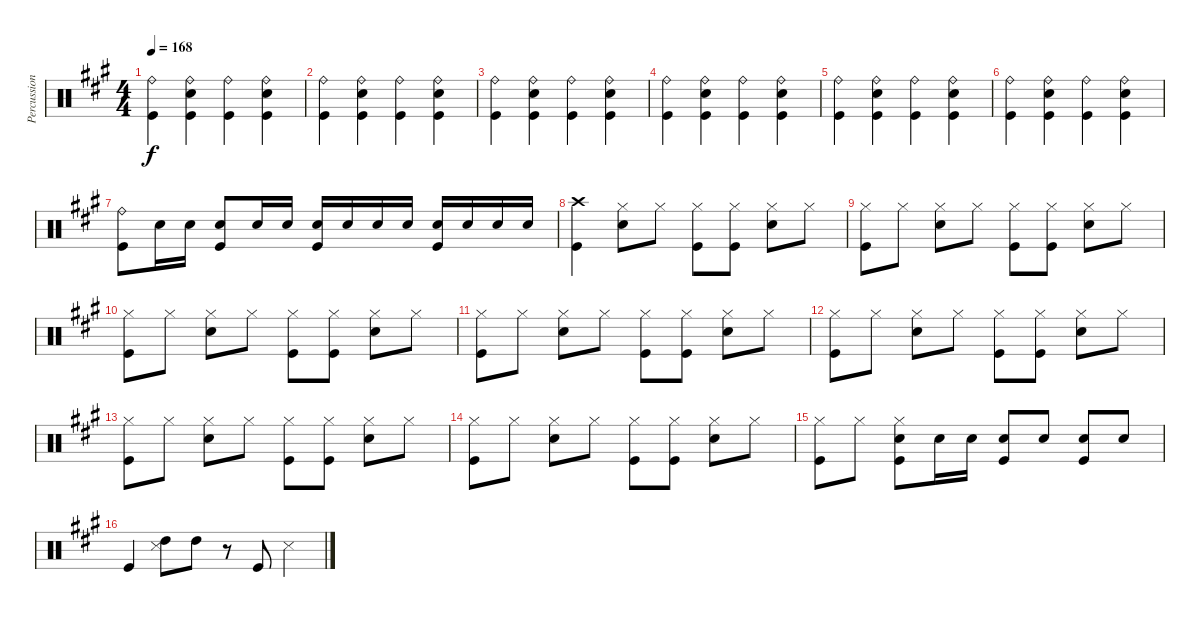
\track ("Percussion" "Percussion") {instrument percussion}
\staff {score}
\articulation defaults
\ts (4 4)
\tempo 168
\clef neutral
\ks a
("Ride (bell)" "Kick (hit)").4{dy f} ("Ride (bell)" "Snare (hit) 2" "Kick (hit)").4 ("Ride (bell)" "Kick (hit)").4 ("Ride (bell)" "Snare (hit) 2" "Kick (hit)").4 |
("Ride (bell)" "Kick (hit)").4 ("Ride (bell)" "Snare (hit) 2" "Kick (hit)").4 ("Ride (bell)" "Kick (hit)").4 ("Ride (bell)" "Snare (hit) 2" "Kick (hit)").4 |
("Ride (bell)" "Kick (hit)").4 ("Ride (bell)" "Snare (hit) 2" "Kick (hit)").4 ("Ride (bell)" "Kick (hit)").4 ("Ride (bell)" "Snare (hit) 2" "Kick (hit)").4 |
("Ride (bell)" "Kick (hit)").4 ("Ride (bell)" "Snare (hit) 2" "Kick (hit)").4 ("Ride (bell)" "Kick (hit)").4 ("Ride (bell)" "Snare (hit) 2" "Kick (hit)").4 |
("Ride (bell)" "Kick (hit)").4 ("Ride (bell)" "Snare (hit) 2" "Kick (hit)").4 ("Ride (bell)" "Kick (hit)").4 ("Ride (bell)" "Snare (hit) 2" "Kick (hit)").4 |
("Ride (bell)" "Kick (hit)").4 ("Ride (bell)" "Snare (hit) 2" "Kick (hit)").4 ("Ride (bell)" "Kick (hit)").4 ("Ride (bell)" "Snare (hit) 2" "Kick (hit)").4 |
("Ride (bell)" "Kick (hit)").8 "Snare (hit) 2".16 "Snare (hit) 2".16 ("Snare (hit) 2" "Kick (hit)").8 "Snare (hit) 2".16 "Snare (hit) 2".16 ("Snare (hit) 2" "Kick (hit)").16 "Snare (hit) 2".16 "Snare (hit) 2".16 "Snare (hit) 2".16 ("Snare (hit) 2" "Kick (hit)").16 "Snare (hit) 2".16 "Snare (hit) 2".16 "Snare (hit) 2".16 |
("Crash high (hit)" "Kick (hit)").4 ("Hi-Hat (closed)" "Snare (hit) 2").8 "Hi-Hat (closed)".8 ("Hi-Hat (closed)" "Kick (hit)").8 ("Hi-Hat (closed)" "Kick (hit)").8 ("Hi-Hat (closed)" "Snare (hit) 2").8 "Hi-Hat (closed)".8 |
("Hi-Hat (closed)" "Kick (hit)").8 "Hi-Hat (closed)".8 ("Hi-Hat (closed)" "Snare (hit) 2").8 "Hi-Hat (closed)".8 ("Hi-Hat (closed)" "Kick (hit)").8 ("Hi-Hat (closed)" "Kick (hit)").8 ("Hi-Hat (closed)" "Snare (hit) 2").8 "Hi-Hat (closed)".8 |
("Hi-Hat (closed)" "Kick (hit)").8 "Hi-Hat (closed)".8 ("Hi-Hat (closed)" "Snare (hit) 2").8 "Hi-Hat (closed)".8 ("Hi-Hat (closed)" "Kick (hit)").8 ("Hi-Hat (closed)" "Kick (hit)").8 ("Hi-Hat (closed)" "Snare (hit) 2").8 "Hi-Hat (closed)".8 |
("Hi-Hat (closed)" "Kick (hit)").8 "Hi-Hat (closed)".8 ("Hi-Hat (closed)" "Snare (hit) 2").8 "Hi-Hat (closed)".8 ("Hi-Hat (closed)" "Kick (hit)").8 ("Hi-Hat (closed)" "Kick (hit)").8 ("Hi-Hat (closed)" "Snare (hit) 2").8 "Hi-Hat (closed)".8 |
("Hi-Hat (closed)" "Kick (hit)").8 "Hi-Hat (closed)".8 ("Hi-Hat (closed)" "Snare (hit) 2").8 "Hi-Hat (closed)".8 ("Hi-Hat (closed)" "Kick (hit)").8 ("Hi-Hat (closed)" "Kick (hit)").8 ("Hi-Hat (closed)" "Snare (hit) 2").8 "Hi-Hat (closed)".8 |
("Hi-Hat (closed)" "Kick (hit)").8 "Hi-Hat (closed)".8 ("Hi-Hat (closed)" "Snare (hit) 2").8 "Hi-Hat (closed)".8 ("Hi-Hat (closed)" "Kick (hit)").8 ("Hi-Hat (closed)" "Kick (hit)").8 ("Hi-Hat (closed)" "Snare (hit) 2").8 "Hi-Hat (closed)".8 |
("Hi-Hat (closed)" "Kick (hit)").8 "Hi-Hat (closed)".8 ("Hi-Hat (closed)" "Snare (hit) 2").8 "Hi-Hat (closed)".8 ("Hi-Hat (closed)" "Kick (hit)").8 ("Hi-Hat (closed)" "Kick (hit)").8 ("Hi-Hat (closed)" "Snare (hit) 2").8 "Hi-Hat (closed)".8 |
("Hi-Hat (closed)" "Kick (hit)").8 "Hi-Hat (closed)".8 ("Hi-Hat (closed)" "Snare (hit) 2" "Kick (hit)").8 "Snare (hit) 2".16 "Snare (hit) 2".16 ("Snare (hit) 2" "Kick (hit)").8 "Snare (hit) 2".8 ("Snare (hit) 2" "Kick (hit)").8 "Snare (hit) 2".8 |
"Kick (hit)".4 ("High Tom (hit)" "Snare (side stick) 3").8 "High Tom (hit)".8 r.8 "Kick (hit)".8 "Snare (side stick) 3".4
